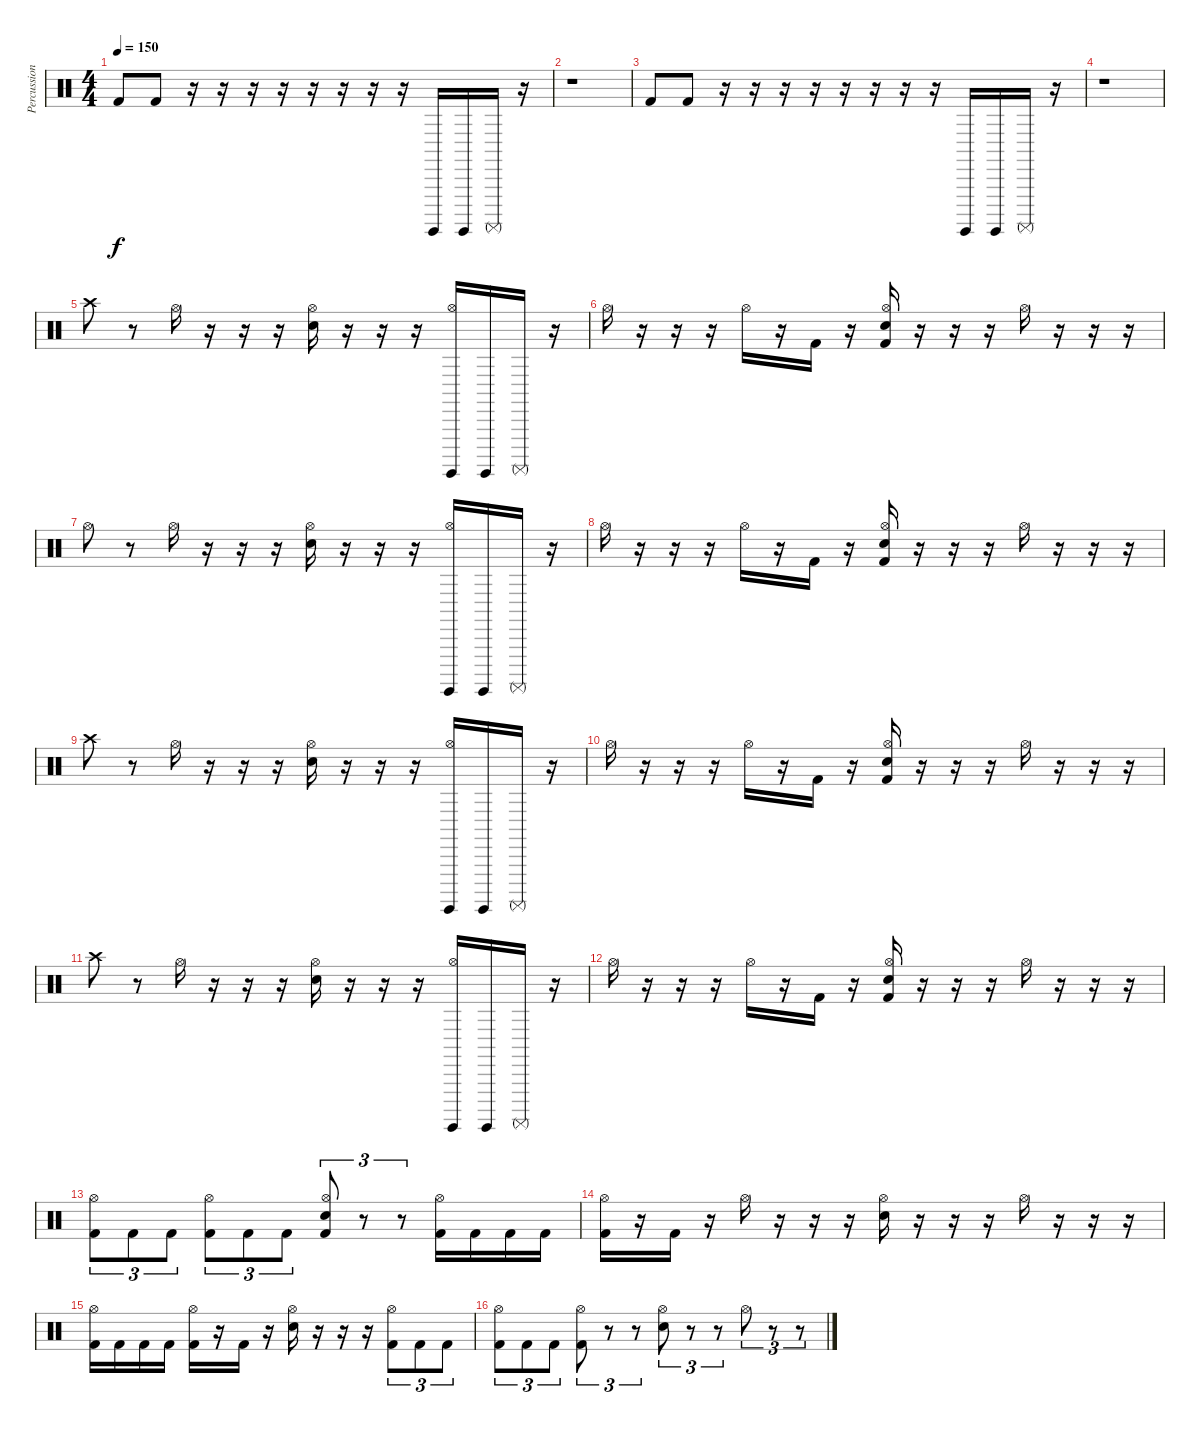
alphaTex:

\track ("Percussions" "Percussion") {instrument percussion}
\staff {score}
\articulation defaults
\ts (4 4)
\tempo 150
\clef neutral
\ks c "Kick (hit) 2".8{dy f} "Kick (hit) 2".8
r.16 r.16 r.16 r.16 r.16 r.16 r.16 r.16 "Surdo (hit)".16 "Surdo (hit)".16 "Surdo (mute)".16 r.16 |
r.1 |
"Kick (hit) 2".8 "Kick (hit) 2".8 r.16 r.16 r.16 r.16 r.16 r.16 r.16 r.16 "Surdo (hit)".16 "Surdo (hit)".16 "Surdo (mute)".16 r.16 |
r.1 |
"Crash high (hit)".8 r.8 "Hi-Hat (open)".16 r.16 r.16 r.16 ("Hi-Hat (open)" "Electric Snare (hit)").16 r.16 r.16 r.16 ("Hi-Hat (open)" "Surdo (hit)").16 "Surdo (hit)".16 "Surdo (mute)".16 r.16 |
"Hi-Hat (open)".16 r.16 r.16 r.16 "Hi-Hat (open)".16 r.16 "Kick (hit) 2".16 r.16 ("Hi-Hat (open)" "Electric Snare (hit)" "Kick (hit) 2").16 r.16 r.16 r.16 "Hi-Hat (open)".16 r.16 r.16 r.16 |
"Hi-Hat (open)".8 r.8 "Hi-Hat (open)".16 r.16 r.16 r.16 ("Hi-Hat (open)" "Electric Snare (hit)").16 r.16 r.16 r.16 ("Hi-Hat (open)" "Surdo (hit)").16 "Surdo (hit)".16 "Surdo (mute)".16 r.16 |
"Hi-Hat (open)".16 r.16 r.16 r.16 "Hi-Hat (open)".16 r.16 "Kick (hit) 2".16 r.16 ("Hi-Hat (open)" "Electric Snare (hit)" "Kick (hit) 2").16 r.16 r.16 r.16 "Hi-Hat (open)".16 r.16 r.16 r.16 |
"Crash high (hit)".8 r.8 "Hi-Hat (open)".16 r.16 r.16 r.16 ("Hi-Hat (open)" "Electric Snare (hit)").16 r.16 r.16 r.16 ("Hi-Hat (open)" "Surdo (hit)").16 "Surdo (hit)".16 "Surdo (mute)".16 r.16 |
"Hi-Hat (open)".16 r.16 r.16 r.16 "Hi-Hat (open)".16 r.16 "Kick (hit) 2".16 r.16 ("Hi-Hat (open)" "Electric Snare (hit)" "Kick (hit) 2").16 r.16 r.16 r.16 "Hi-Hat (open)".16 r.16 r.16 r.16 |
"Crash high (hit)".8 r.8 "Hi-Hat (open)".16 r.16 r.16 r.16 ("Hi-Hat (open)" "Electric Snare (hit)").16 r.16 r.16 r.16 ("Hi-Hat (open)" "Surdo (hit)").16 "Surdo (hit)".16 "Surdo (mute)".16 r.16 |
"Hi-Hat (open)".16 r.16 r.16 r.16 "Hi-Hat (open)".16 r.16 "Kick (hit) 2".16 r.16 ("Hi-Hat (open)" "Electric Snare (hit)" "Kick (hit) 2").16 r.16 r.16 r.16 "Hi-Hat (open)".16 r.16 r.16 r.16 |
("Hi-Hat (open)" "Kick (hit) 2").8{tu (3 2)} "Kick (hit) 2".8{tu (3 2)} "Kick (hit) 2".8{tu (3 2)} ("Hi-Hat (open)" "Kick (hit) 2").8{tu (3 2)} "Kick (hit) 2".8{tu (3 2)} "Kick (hit) 2".8{tu (3 2)} ("Hi-Hat (open)" "Electric Snare (hit)" "Kick (hit) 2").8{tu (3 2)} r.8{tu (3 2)} r.8{tu (3 2)} ("Hi-Hat (open)" "Kick (hit) 2").16 "Kick (hit) 2".16 "Kick (hit) 2".16 "Kick (hit) 2".16 |
("Hi-Hat (open)" "Kick (hit) 2").16 r.16 "Kick (hit) 2".16 r.16 "Hi-Hat (open)".16 r.16 r.16 r.16 ("Hi-Hat (open)" "Electric Snare (hit)").16 r.16 r.16 r.16 "Hi-Hat (open)".16 r.16 r.16 r.16 |
("Hi-Hat (open)" "Kick (hit) 2").16 "Kick (hit) 2".16 "Kick (hit) 2".16 "Kick (hit) 2".16 ("Hi-Hat (open)" "Kick (hit) 2").16 r.16 "Kick (hit) 2".16 r.16 ("Hi-Hat (open)" "Electric Snare (hit)").16 r.16 r.16 r.16 ("Hi-Hat (open)" "Kick (hit) 2").8{tu (3 2)} "Kick (hit) 2".8{tu (3 2)} "Kick (hit) 2".8{tu (3 2)} |
("Hi-Hat (open)" "Kick (hit) 2").8{tu (3 2)} "Kick (hit) 2".8{tu (3 2)} "Kick (hit) 2".8{tu (3 2)} ("Hi-Hat (open)" "Kick (hit) 2").8{tu (3 2)} r.8{tu (3 2)} r.8{tu (3 2)} ("Hi-Hat (open)" "Electric Snare (hit)").8{tu (3 2)} r.8{tu (3 2)} r.8{tu (3 2)} "Hi-Hat (open)".8{tu (3 2)} r.8{tu (3 2)} r.8{tu (3 2)}
